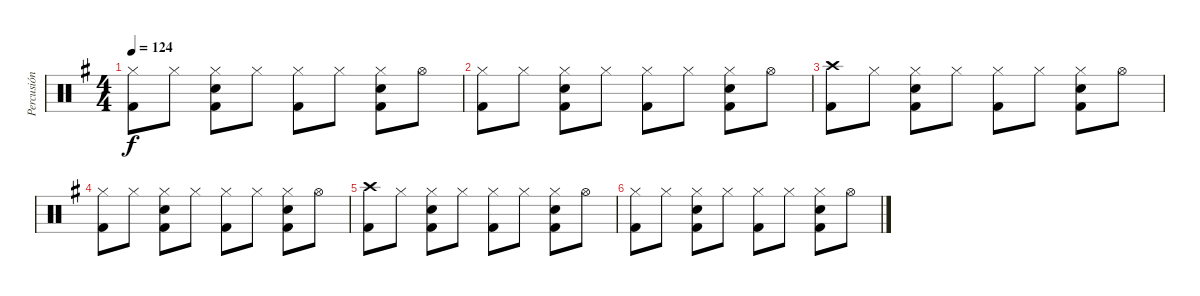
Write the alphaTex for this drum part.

\track ("Percusión" "Percusión") {instrument percussion}
\staff {score}
\articulation defaults
\ts (4 4)
\tempo 124
\clef neutral
\ks g
("Hi-Hat (closed)" "Kick (hit) 2").8{dy f volume 10} "Hi-Hat (closed)".8 ("Hi-Hat (closed)" "Electric Snare (hit)" "Kick (hit) 2").8 "Hi-Hat (closed)".8 ("Hi-Hat (closed)" "Kick (hit) 2").8 "Hi-Hat (closed)".8 ("Hi-Hat (closed)" "Electric Snare (hit)" "Kick (hit) 2").8 "Hi-Hat (open)".8 |
("Hi-Hat (closed)" "Kick (hit) 2").8{volume 8} "Hi-Hat (closed)".8 ("Hi-Hat (closed)" "Electric Snare (hit)" "Kick (hit) 2").8 "Hi-Hat (closed)".8 ("Hi-Hat (closed)" "Kick (hit) 2").8 "Hi-Hat (closed)".8 ("Hi-Hat (closed)" "Electric Snare (hit)" "Kick (hit) 2").8 "Hi-Hat (open)".8 |
("Crash high (hit)" "Kick (hit) 2").8{volume 6} "Hi-Hat (closed)".8 ("Hi-Hat (closed)" "Electric Snare (hit)" "Kick (hit) 2").8 "Hi-Hat (closed)".8 ("Hi-Hat (closed)" "Kick (hit) 2").8 "Hi-Hat (closed)".8 ("Hi-Hat (closed)" "Electric Snare (hit)" "Kick (hit) 2").8 "Hi-Hat (open)".8 |
("Hi-Hat (closed)" "Kick (hit) 2").8{volume 4} "Hi-Hat (closed)".8 ("Hi-Hat (closed)" "Electric Snare (hit)" "Kick (hit) 2").8 "Hi-Hat (closed)".8 ("Hi-Hat (closed)" "Kick (hit) 2").8 "Hi-Hat (closed)".8 ("Hi-Hat (closed)" "Electric Snare (hit)" "Kick (hit) 2").8 "Hi-Hat (open)".8 |
("Crash high (hit)" "Kick (hit) 2").8{volume 2} "Hi-Hat (closed)".8 ("Hi-Hat (closed)" "Electric Snare (hit)" "Kick (hit) 2").8 "Hi-Hat (closed)".8 ("Hi-Hat (closed)" "Kick (hit) 2").8 "Hi-Hat (closed)".8 ("Hi-Hat (closed)" "Electric Snare (hit)" "Kick (hit) 2").8 "Hi-Hat (open)".8 |
("Hi-Hat (closed)" "Kick (hit) 2").8{volume 0} "Hi-Hat (closed)".8 ("Hi-Hat (closed)" "Electric Snare (hit)" "Kick (hit) 2").8 "Hi-Hat (closed)".8 ("Hi-Hat (closed)" "Kick (hit) 2").8 "Hi-Hat (closed)".8 ("Hi-Hat (closed)" "Electric Snare (hit)" "Kick (hit) 2").8 "Hi-Hat (open)".8
